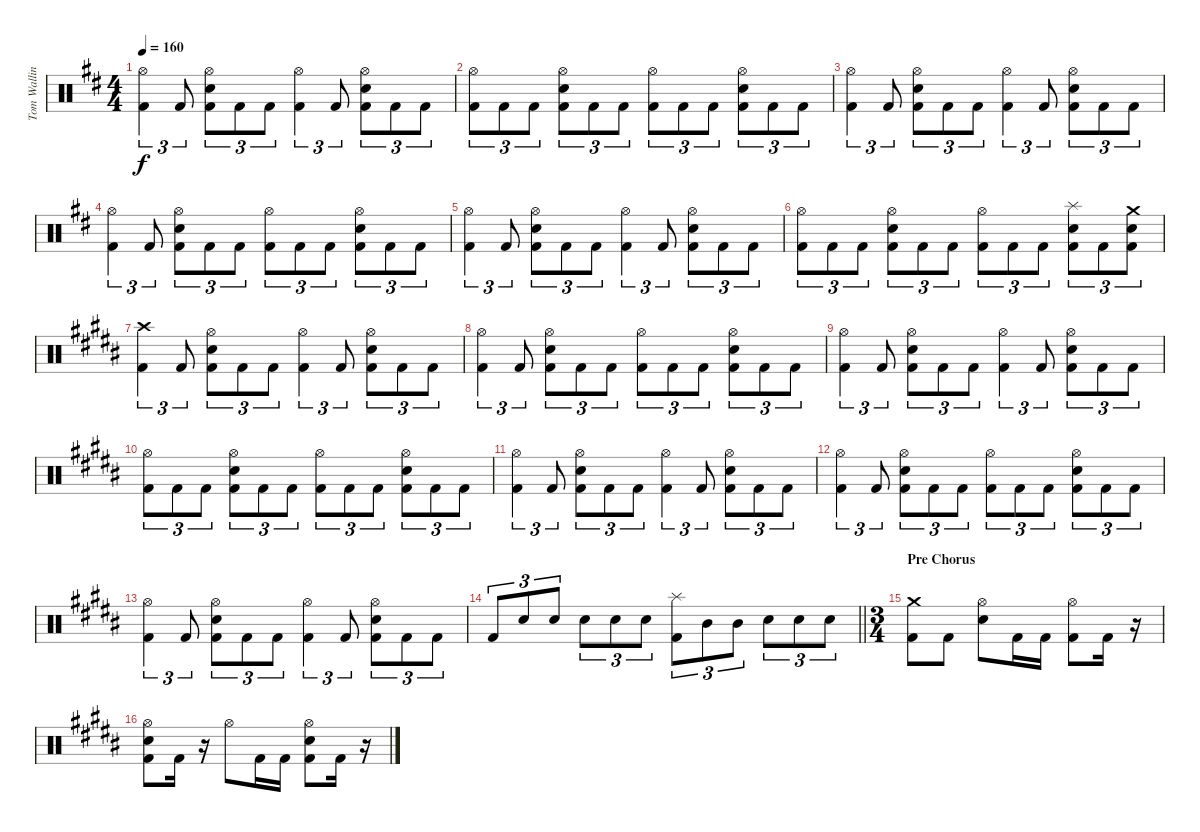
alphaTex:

\track ("Tom Walling (drums)" "Tom Wallin") {instrument percussion}
\staff {score}
\articulation defaults
\ts (4 4)
\tempo 160
\clef neutral
\ks bminor
("Hi-Hat (open)" "Kick (hit) 2").4{tu (3 2) dy f} "Kick (hit) 2".8{tu (3 2)} ("Hi-Hat (open)" "Electric Snare (hit)" "Kick (hit) 2").8{tu (3 2)} "Kick (hit) 2".8{tu (3 2)} "Kick (hit) 2".8{tu (3 2)} ("Hi-Hat (open)" "Kick (hit) 2").4{tu (3 2)} "Kick (hit) 2".8{tu (3 2)} ("Hi-Hat (open)" "Electric Snare (hit)" "Kick (hit) 2").8{tu (3 2)} "Kick (hit) 2".8{tu (3 2)} "Kick (hit) 2".8{tu (3 2)} |
("Hi-Hat (open)" "Kick (hit) 2").8{tu (3 2)} "Kick (hit) 2".8{tu (3 2)} "Kick (hit) 2".8{tu (3 2)} ("Hi-Hat (open)" "Electric Snare (hit)" "Kick (hit) 2").8{tu (3 2)} "Kick (hit) 2".8{tu (3 2)} "Kick (hit) 2".8{tu (3 2)} ("Hi-Hat (open)" "Kick (hit) 2").8{tu (3 2)} "Kick (hit) 2".8{tu (3 2)} "Kick (hit) 2".8{tu (3 2)} ("Hi-Hat (open)" "Electric Snare (hit)" "Kick (hit) 2").8{tu (3 2)} "Kick (hit) 2".8{tu (3 2)} "Kick (hit) 2".8{tu (3 2)} |
("Hi-Hat (open)" "Kick (hit) 2").4{tu (3 2)} "Kick (hit) 2".8{tu (3 2)} ("Hi-Hat (open)" "Electric Snare (hit)" "Kick (hit) 2").8{tu (3 2)} "Kick (hit) 2".8{tu (3 2)} "Kick (hit) 2".8{tu (3 2)} ("Hi-Hat (open)" "Kick (hit) 2").4{tu (3 2)} "Kick (hit) 2".8{tu (3 2)} ("Hi-Hat (open)" "Electric Snare (hit)" "Kick (hit) 2").8{tu (3 2)} "Kick (hit) 2".8{tu (3 2)} "Kick (hit) 2".8{tu (3 2)} |
("Hi-Hat (open)" "Kick (hit) 2").4{tu (3 2)} "Kick (hit) 2".8{tu (3 2)} ("Hi-Hat (open)" "Electric Snare (hit)" "Kick (hit) 2").8{tu (3 2)} "Kick (hit) 2".8{tu (3 2)} "Kick (hit) 2".8{tu (3 2)} ("Hi-Hat (open)" "Kick (hit) 2").8{tu (3 2)} "Kick (hit) 2".8{tu (3 2)} "Kick (hit) 2".8{tu (3 2)} ("Hi-Hat (open)" "Electric Snare (hit)" "Kick (hit) 2").8{tu (3 2)} "Kick (hit) 2".8{tu (3 2)} "Kick (hit) 2".8{tu (3 2)} |
("Hi-Hat (open)" "Kick (hit) 2").4{tu (3 2)} "Kick (hit) 2".8{tu (3 2)} ("Hi-Hat (open)" "Electric Snare (hit)" "Kick (hit) 2").8{tu (3 2)} "Kick (hit) 2".8{tu (3 2)} "Kick (hit) 2".8{tu (3 2)} ("Hi-Hat (open)" "Kick (hit) 2").4{tu (3 2)} "Kick (hit) 2".8{tu (3 2)} ("Hi-Hat (open)" "Electric Snare (hit)" "Kick (hit) 2").8{tu (3 2)} "Kick (hit) 2".8{tu (3 2)} "Kick (hit) 2".8{tu (3 2)} |
("Hi-Hat (open)" "Kick (hit) 2").8{tu (3 2)} "Kick (hit) 2".8{tu (3 2)} "Kick (hit) 2".8{tu (3 2)} ("Hi-Hat (open)" "Electric Snare (hit)" "Kick (hit) 2").8{tu (3 2)} "Kick (hit) 2".8{tu (3 2)} "Kick (hit) 2".8{tu (3 2)} ("Hi-Hat (open)" "Kick (hit) 2").8{tu (3 2)} "Kick (hit) 2".8{tu (3 2)} "Kick (hit) 2".8{tu (3 2)} ("Kick (hit) 2" "Splash (hit)" "Electric Snare (hit)").8{tu (3 2)} "Kick (hit) 2".8{tu (3 2)} ("Kick (hit) 2" "Crash medium (hit)" "Electric Snare (hit)").8{tu (3 2)} |
\ks g#minor
("Crash high (hit)" "Kick (hit) 2").4{tu (3 2)} "Kick (hit) 2".8{tu (3 2)} ("Hi-Hat (open)" "Electric Snare (hit)" "Kick (hit) 2").8{tu (3 2)} "Kick (hit) 2".8{tu (3 2)} "Kick (hit) 2".8{tu (3 2)} ("Hi-Hat (open)" "Kick (hit) 2").4{tu (3 2)} "Kick (hit) 2".8{tu (3 2)} ("Hi-Hat (open)" "Electric Snare (hit)" "Kick (hit) 2").8{tu (3 2)} "Kick (hit) 2".8{tu (3 2)} "Kick (hit) 2".8{tu (3 2)} |
("Hi-Hat (open)" "Kick (hit) 2").4{tu (3 2)} "Kick (hit) 2".8{tu (3 2)} ("Hi-Hat (open)" "Electric Snare (hit)" "Kick (hit) 2").8{tu (3 2)} "Kick (hit) 2".8{tu (3 2)} "Kick (hit) 2".8{tu (3 2)} ("Hi-Hat (open)" "Kick (hit) 2").8{tu (3 2)} "Kick (hit) 2".8{tu (3 2)} "Kick (hit) 2".8{tu (3 2)} ("Hi-Hat (open)" "Electric Snare (hit)" "Kick (hit) 2").8{tu (3 2)} "Kick (hit) 2".8{tu (3 2)} "Kick (hit) 2".8{tu (3 2)} |
("Hi-Hat (open)" "Kick (hit) 2").4{tu (3 2)} "Kick (hit) 2".8{tu (3 2)} ("Hi-Hat (open)" "Electric Snare (hit)" "Kick (hit) 2").8{tu (3 2)} "Kick (hit) 2".8{tu (3 2)} "Kick (hit) 2".8{tu (3 2)} ("Hi-Hat (open)" "Kick (hit) 2").4{tu (3 2)} "Kick (hit) 2".8{tu (3 2)} ("Hi-Hat (open)" "Electric Snare (hit)" "Kick (hit) 2").8{tu (3 2)} "Kick (hit) 2".8{tu (3 2)} "Kick (hit) 2".8{tu (3 2)} |
("Hi-Hat (open)" "Kick (hit) 2").8{tu (3 2)} "Kick (hit) 2".8{tu (3 2)} "Kick (hit) 2".8{tu (3 2)} ("Hi-Hat (open)" "Electric Snare (hit)" "Kick (hit) 2").8{tu (3 2)} "Kick (hit) 2".8{tu (3 2)} "Kick (hit) 2".8{tu (3 2)} ("Hi-Hat (open)" "Kick (hit) 2").8{tu (3 2)} "Kick (hit) 2".8{tu (3 2)} "Kick (hit) 2".8{tu (3 2)} ("Hi-Hat (open)" "Electric Snare (hit)" "Kick (hit) 2").8{tu (3 2)} "Kick (hit) 2".8{tu (3 2)} "Kick (hit) 2".8{tu (3 2)} |
("Hi-Hat (open)" "Kick (hit) 2").4{tu (3 2)} "Kick (hit) 2".8{tu (3 2)} ("Hi-Hat (open)" "Electric Snare (hit)" "Kick (hit) 2").8{tu (3 2)} "Kick (hit) 2".8{tu (3 2)} "Kick (hit) 2".8{tu (3 2)} ("Hi-Hat (open)" "Kick (hit) 2").4{tu (3 2)} "Kick (hit) 2".8{tu (3 2)} ("Hi-Hat (open)" "Electric Snare (hit)" "Kick (hit) 2").8{tu (3 2)} "Kick (hit) 2".8{tu (3 2)} "Kick (hit) 2".8{tu (3 2)} |
("Hi-Hat (open)" "Kick (hit) 2").4{tu (3 2)} "Kick (hit) 2".8{tu (3 2)} ("Hi-Hat (open)" "Electric Snare (hit)" "Kick (hit) 2").8{tu (3 2)} "Kick (hit) 2".8{tu (3 2)} "Kick (hit) 2".8{tu (3 2)} ("Hi-Hat (open)" "Kick (hit) 2").8{tu (3 2)} "Kick (hit) 2".8{tu (3 2)} "Kick (hit) 2".8{tu (3 2)} ("Hi-Hat (open)" "Electric Snare (hit)" "Kick (hit) 2").8{tu (3 2)} "Kick (hit) 2".8{tu (3 2)} "Kick (hit) 2".8{tu (3 2)} |
("Hi-Hat (open)" "Kick (hit) 2").4{tu (3 2)} "Kick (hit) 2".8{tu (3 2)} ("Hi-Hat (open)" "Electric Snare (hit)" "Kick (hit) 2").8{tu (3 2)} "Kick (hit) 2".8{tu (3 2)} "Kick (hit) 2".8{tu (3 2)} ("Hi-Hat (open)" "Kick (hit) 2").4{tu (3 2)} "Kick (hit) 2".8{tu (3 2)} ("Hi-Hat (open)" "Electric Snare (hit)" "Kick (hit) 2").8{tu (3 2)} "Kick (hit) 2".8{tu (3 2)} "Kick (hit) 2".8{tu (3 2)} |
\barLineRight lightlight "Kick (hit) 2".8{tu (3 2)} "Electric Snare (hit)".8{tu (3 2)} "Electric Snare (hit)".8{tu (3 2)} "Electric Snare (hit)".8{tu (3 2)} "Electric Snare (hit)".8{tu (3 2)} "Electric Snare (hit)".8{tu (3 2)}
("Splash (hit)" "Kick (hit) 2").8{tu (3 2)} "Mid Tom (hit)".8{tu (3 2)} "Mid Tom (hit)".8{tu (3 2)} "Electric Snare (hit)".8{tu (3 2)} "Electric Snare (hit)".8{tu (3 2)} "Electric Snare (hit)".8{tu (3 2)} |
\ts (3 4)
\section ("" "Pre Chorus")
("Kick (hit) 2" "Crash medium (hit)").8 "Kick (hit) 2".8 ("Electric Snare (hit)" "Hi-Hat (open)").8 "Kick (hit) 2".16 "Kick (hit) 2".16 ("Kick (hit) 2" "Hi-Hat (open)").8 "Kick (hit) 2".16 r.16 |
("Kick (hit) 2" "Electric Snare (hit)" "Hi-Hat (open)").8 "Kick (hit) 2".16 r.16 "Hi-Hat (open)".8 "Kick (hit) 2".16 "Kick (hit) 2".16 ("Kick (hit) 2" "Electric Snare (hit)" "Hi-Hat (open)").8 "Kick (hit) 2".16 r.16
